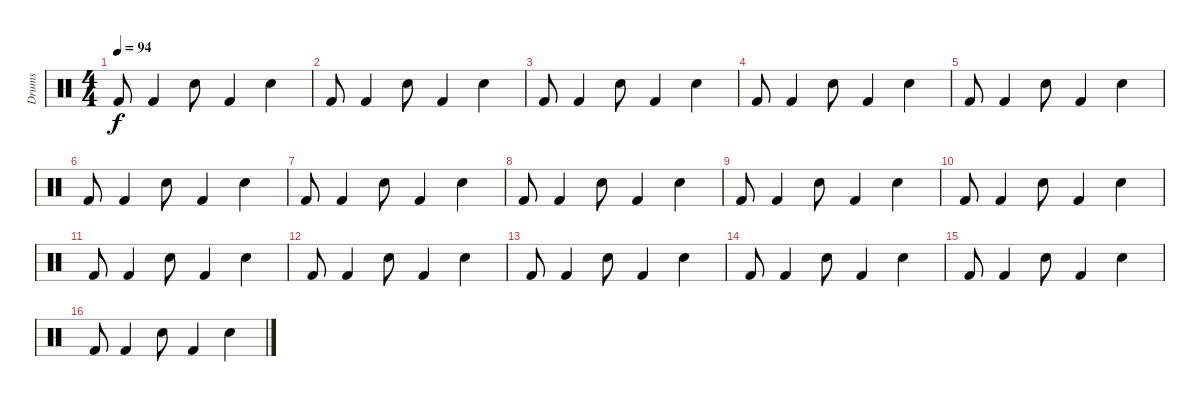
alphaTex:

\track ("Drums" "Drums") {instrument percussion}
\staff {score}
\articulation defaults
\ts (4 4)
\tempo 94
\clef neutral
\ks c "Kick (hit) 2".8{dy f} "Kick (hit) 2".4 "Electric Snare (hit)".8 "Kick (hit) 2".4 "Electric Snare (hit)".4
|
"Kick (hit) 2".8 "Kick (hit) 2".4 "Electric Snare (hit)".8 "Kick (hit) 2".4 "Electric Snare (hit)".4 |
"Kick (hit) 2".8 "Kick (hit) 2".4 "Electric Snare (hit)".8 "Kick (hit) 2".4 "Electric Snare (hit)".4 |
"Kick (hit) 2".8 "Kick (hit) 2".4 "Electric Snare (hit)".8 "Kick (hit) 2".4 "Electric Snare (hit)".4 |
"Kick (hit) 2".8 "Kick (hit) 2".4 "Electric Snare (hit)".8 "Kick (hit) 2".4 "Electric Snare (hit)".4 |
"Kick (hit) 2".8 "Kick (hit) 2".4 "Electric Snare (hit)".8 "Kick (hit) 2".4 "Electric Snare (hit)".4 |
"Kick (hit) 2".8 "Kick (hit) 2".4 "Electric Snare (hit)".8 "Kick (hit) 2".4 "Electric Snare (hit)".4 |
"Kick (hit) 2".8 "Kick (hit) 2".4 "Electric Snare (hit)".8 "Kick (hit) 2".4 "Electric Snare (hit)".4 |
"Kick (hit) 2".8 "Kick (hit) 2".4 "Electric Snare (hit)".8 "Kick (hit) 2".4 "Electric Snare (hit)".4 |
"Kick (hit) 2".8 "Kick (hit) 2".4 "Electric Snare (hit)".8 "Kick (hit) 2".4 "Electric Snare (hit)".4 |
"Kick (hit) 2".8 "Kick (hit) 2".4 "Electric Snare (hit)".8 "Kick (hit) 2".4 "Electric Snare (hit)".4 |
"Kick (hit) 2".8 "Kick (hit) 2".4 "Electric Snare (hit)".8 "Kick (hit) 2".4 "Electric Snare (hit)".4 |
"Kick (hit) 2".8 "Kick (hit) 2".4 "Electric Snare (hit)".8 "Kick (hit) 2".4 "Electric Snare (hit)".4 |
"Kick (hit) 2".8 "Kick (hit) 2".4 "Electric Snare (hit)".8 "Kick (hit) 2".4 "Electric Snare (hit)".4 |
"Kick (hit) 2".8 "Kick (hit) 2".4 "Electric Snare (hit)".8 "Kick (hit) 2".4 "Electric Snare (hit)".4 |
"Kick (hit) 2".8 "Kick (hit) 2".4 "Electric Snare (hit)".8 "Kick (hit) 2".4 "Electric Snare (hit)".4
